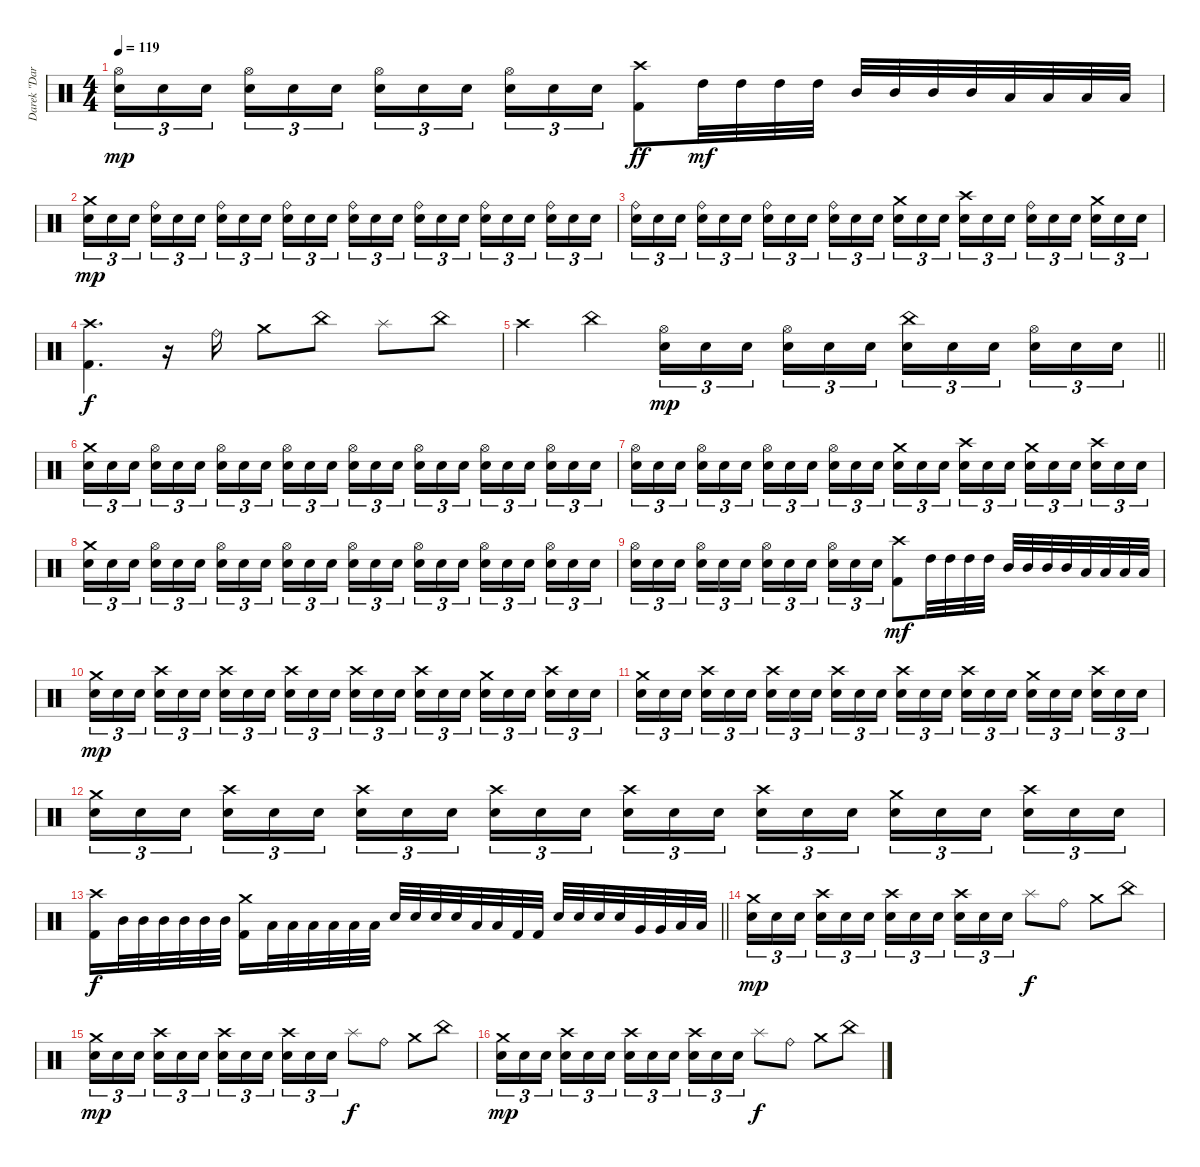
\track ("Darek \"Daray\" Brzozowski " "Darek \"Dar") {instrument percussion}
\staff {score}
\articulation defaults
\ts (4 4)
\tempo 119
\clef neutral
\ks c
("Hi-Hat (open)" "Electric Snare (hit)").16{tu (3 2) dy mp} "Electric Snare (hit)".16{tu (3 2)} "Electric Snare (hit)".16{tu (3 2) beam splitsecondary} ("Hi-Hat (open)" "Electric Snare (hit)").16{tu (3 2)} "Electric Snare (hit)".16{tu (3 2)} "Electric Snare (hit)".16{tu (3 2)} ("Hi-Hat (open)" "Electric Snare (hit)").16{tu (3 2)} "Electric Snare (hit)".16{tu (3 2)} "Electric Snare (hit)".16{tu (3 2) beam splitsecondary} ("Hi-Hat (open)" "Electric Snare (hit)").16{tu (3 2)} "Electric Snare (hit)".16{tu (3 2)} "Electric Snare (hit)".16{tu (3 2)} ("Crash high (hit)" "Kick (hit) 2").8{dy ff} "High Tom (hit)".32{dy mf} "High Tom (hit)".32 "High Tom (hit)".32 "High Tom (hit)".32 "Mid Tom (hit)".32 "Mid Tom (hit)".32 "Mid Tom (hit)".32 "Mid Tom (hit)".32 "Low Tom (hit)".32 "Low Tom (hit)".32 "Low Tom (hit)".32 "Low Tom (hit)".32 |
("Crash medium (hit)" "Electric Snare (hit)").16{tu (3 2) dy mp} "Electric Snare (hit)".16{tu (3 2)} "Electric Snare (hit)".16{tu (3 2) beam splitsecondary} ("Ride (bell)" "Electric Snare (hit)").16{tu (3 2)} "Electric Snare (hit)".16{tu (3 2)} "Electric Snare (hit)".16{tu (3 2)} ("Ride (bell)" "Electric Snare (hit)").16{tu (3 2)} "Electric Snare (hit)".16{tu (3 2)} "Electric Snare (hit)".16{tu (3 2) beam splitsecondary} ("Ride (bell)" "Electric Snare (hit)").16{tu (3 2)} "Electric Snare (hit)".16{tu (3 2)} "Electric Snare (hit)".16{tu (3 2)} ("Ride (bell)" "Electric Snare (hit)").16{tu (3 2)} "Electric Snare (hit)".16{tu (3 2)} "Electric Snare (hit)".16{tu (3 2) beam splitsecondary} ("Ride (bell)" "Electric Snare (hit)").16{tu (3 2)} "Electric Snare (hit)".16{tu (3 2)} "Electric Snare (hit)".16{tu (3 2)} ("Ride (bell)" "Electric Snare (hit)").16{tu (3 2)} "Electric Snare (hit)".16{tu (3 2)} "Electric Snare (hit)".16{tu (3 2) beam splitsecondary} ("Ride (bell)" "Electric Snare (hit)").16{tu (3 2)} "Electric Snare (hit)".16{tu (3 2)} "Electric Snare (hit)".16{tu (3 2)} |
("Ride (bell)" "Electric Snare (hit)").16{tu (3 2)} "Electric Snare (hit)".16{tu (3 2)} "Electric Snare (hit)".16{tu (3 2) beam splitsecondary} ("Ride (bell)" "Electric Snare (hit)").16{tu (3 2)} "Electric Snare (hit)".16{tu (3 2)} "Electric Snare (hit)".16{tu (3 2)} ("Ride (bell)" "Electric Snare (hit)").16{tu (3 2)} "Electric Snare (hit)".16{tu (3 2)} "Electric Snare (hit)".16{tu (3 2) beam splitsecondary} ("Ride (bell)" "Electric Snare (hit)").16{tu (3 2)} "Electric Snare (hit)".16{tu (3 2)} "Electric Snare (hit)".16{tu (3 2)} ("Crash medium (hit)" "Electric Snare (hit)").16{tu (3 2)} "Electric Snare (hit)".16{tu (3 2)} "Electric Snare (hit)".16{tu (3 2) beam splitsecondary} ("Crash high (hit)" "Electric Snare (hit)").16{tu (3 2)} "Electric Snare (hit)".16{tu (3 2)} "Electric Snare (hit)".16{tu (3 2)} ("Ride (bell)" "Electric Snare (hit)").16{tu (3 2)} "Electric Snare (hit)".16{tu (3 2)} "Electric Snare (hit)".16{tu (3 2) beam splitsecondary} ("Crash medium (hit)" "Electric Snare (hit)").16{tu (3 2)} "Electric Snare (hit)".16{tu (3 2)} "Electric Snare (hit)".16{tu (3 2)} |
("Crash high (hit)" "Kick (hit) 2").4{d dy f} r.16 "Ride (bell)".16 "Crash medium (hit)".8 "China (hit)".8 "Splash (hit)".8 "China (hit)".8 |
\barLineRight lightlight "Crash high (hit)".4 "China (hit)".4
("Hi-Hat (open)" "Electric Snare (hit)").16{tu (3 2) dy mp} "Electric Snare (hit)".16{tu (3 2)} "Electric Snare (hit)".16{tu (3 2) beam splitsecondary} ("Hi-Hat (open)" "Electric Snare (hit)").16{tu (3 2)} "Electric Snare (hit)".16{tu (3 2)} "Electric Snare (hit)".16{tu (3 2)} ("China (hit)" "Electric Snare (hit)").16{tu (3 2)} "Electric Snare (hit)".16{tu (3 2)} "Electric Snare (hit)".16{tu (3 2) beam splitsecondary} ("Hi-Hat (open)" "Electric Snare (hit)").16{tu (3 2)} "Electric Snare (hit)".16{tu (3 2)} "Electric Snare (hit)".16{tu (3 2)} |
("Crash medium (hit)" "Electric Snare (hit)").16{tu (3 2)} "Electric Snare (hit)".16{tu (3 2)} "Electric Snare (hit)".16{tu (3 2) beam splitsecondary} ("Hi-Hat (open)" "Electric Snare (hit)").16{tu (3 2)} "Electric Snare (hit)".16{tu (3 2)} "Electric Snare (hit)".16{tu (3 2)} ("Hi-Hat (open)" "Electric Snare (hit)").16{tu (3 2)} "Electric Snare (hit)".16{tu (3 2)} "Electric Snare (hit)".16{tu (3 2) beam splitsecondary} ("Hi-Hat (open)" "Electric Snare (hit)").16{tu (3 2)} "Electric Snare (hit)".16{tu (3 2)} "Electric Snare (hit)".16{tu (3 2)} ("Hi-Hat (open)" "Electric Snare (hit)").16{tu (3 2)} "Electric Snare (hit)".16{tu (3 2)} "Electric Snare (hit)".16{tu (3 2) beam splitsecondary} ("Hi-Hat (open)" "Electric Snare (hit)").16{tu (3 2)} "Electric Snare (hit)".16{tu (3 2)} "Electric Snare (hit)".16{tu (3 2)} ("Hi-Hat (open)" "Electric Snare (hit)").16{tu (3 2)} "Electric Snare (hit)".16{tu (3 2)} "Electric Snare (hit)".16{tu (3 2) beam splitsecondary} ("Hi-Hat (open)" "Electric Snare (hit)").16{tu (3 2)} "Electric Snare (hit)".16{tu (3 2)} "Electric Snare (hit)".16{tu (3 2)} |
("Hi-Hat (open)" "Electric Snare (hit)").16{tu (3 2)} "Electric Snare (hit)".16{tu (3 2)} "Electric Snare (hit)".16{tu (3 2) beam splitsecondary} ("Hi-Hat (open)" "Electric Snare (hit)").16{tu (3 2)} "Electric Snare (hit)".16{tu (3 2)} "Electric Snare (hit)".16{tu (3 2)} ("Hi-Hat (open)" "Electric Snare (hit)").16{tu (3 2)} "Electric Snare (hit)".16{tu (3 2)} "Electric Snare (hit)".16{tu (3 2) beam splitsecondary} ("Hi-Hat (open)" "Electric Snare (hit)").16{tu (3 2)} "Electric Snare (hit)".16{tu (3 2)} "Electric Snare (hit)".16{tu (3 2)} ("Crash medium (hit)" "Electric Snare (hit)").16{tu (3 2)} "Electric Snare (hit)".16{tu (3 2)} "Electric Snare (hit)".16{tu (3 2) beam splitsecondary} ("Crash high (hit)" "Electric Snare (hit)").16{tu (3 2)} "Electric Snare (hit)".16{tu (3 2)} "Electric Snare (hit)".16{tu (3 2)} ("Crash medium (hit)" "Electric Snare (hit)").16{tu (3 2)} "Electric Snare (hit)".16{tu (3 2)} "Electric Snare (hit)".16{tu (3 2) beam splitsecondary} ("Crash high (hit)" "Electric Snare (hit)").16{tu (3 2)} "Electric Snare (hit)".16{tu (3 2)} "Electric Snare (hit)".16{tu (3 2)} |
("Crash medium (hit)" "Electric Snare (hit)").16{tu (3 2)} "Electric Snare (hit)".16{tu (3 2)} "Electric Snare (hit)".16{tu (3 2) beam splitsecondary} ("Hi-Hat (open)" "Electric Snare (hit)").16{tu (3 2)} "Electric Snare (hit)".16{tu (3 2)} "Electric Snare (hit)".16{tu (3 2)} ("Hi-Hat (open)" "Electric Snare (hit)").16{tu (3 2)} "Electric Snare (hit)".16{tu (3 2)} "Electric Snare (hit)".16{tu (3 2) beam splitsecondary} ("Hi-Hat (open)" "Electric Snare (hit)").16{tu (3 2)} "Electric Snare (hit)".16{tu (3 2)} "Electric Snare (hit)".16{tu (3 2)} ("Hi-Hat (open)" "Electric Snare (hit)").16{tu (3 2)} "Electric Snare (hit)".16{tu (3 2)} "Electric Snare (hit)".16{tu (3 2) beam splitsecondary} ("Hi-Hat (open)" "Electric Snare (hit)").16{tu (3 2)} "Electric Snare (hit)".16{tu (3 2)} "Electric Snare (hit)".16{tu (3 2)} ("Hi-Hat (open)" "Electric Snare (hit)").16{tu (3 2)} "Electric Snare (hit)".16{tu (3 2)} "Electric Snare (hit)".16{tu (3 2) beam splitsecondary} ("Hi-Hat (open)" "Electric Snare (hit)").16{tu (3 2)} "Electric Snare (hit)".16{tu (3 2)} "Electric Snare (hit)".16{tu (3 2)} |
("Hi-Hat (open)" "Electric Snare (hit)").16{tu (3 2)} "Electric Snare (hit)".16{tu (3 2)} "Electric Snare (hit)".16{tu (3 2) beam splitsecondary} ("Hi-Hat (open)" "Electric Snare (hit)").16{tu (3 2)} "Electric Snare (hit)".16{tu (3 2)} "Electric Snare (hit)".16{tu (3 2)} ("Hi-Hat (open)" "Electric Snare (hit)").16{tu (3 2)} "Electric Snare (hit)".16{tu (3 2)} "Electric Snare (hit)".16{tu (3 2) beam splitsecondary} ("Hi-Hat (open)" "Electric Snare (hit)").16{tu (3 2)} "Electric Snare (hit)".16{tu (3 2)} "Electric Snare (hit)".16{tu (3 2)} ("Crash high (hit)" "Kick (hit) 2").8{dy mf} "High Tom (hit)".32 "High Tom (hit)".32 "High Tom (hit)".32 "High Tom (hit)".32 "Mid Tom (hit)".32 "Mid Tom (hit)".32 "Mid Tom (hit)".32 "Mid Tom (hit)".32 "Low Tom (hit)".32 "Low Tom (hit)".32 "Low Tom (hit)".32 "Low Tom (hit)".32 |
("Crash medium (hit)" "Electric Snare (hit)").16{tu (3 2) dy mp} "Electric Snare (hit)".16{tu (3 2)} "Electric Snare (hit)".16{tu (3 2) beam splitsecondary} ("Crash high (hit)" "Electric Snare (hit)").16{tu (3 2)} "Electric Snare (hit)".16{tu (3 2)} "Electric Snare (hit)".16{tu (3 2)} ("Crash high (hit)" "Electric Snare (hit)").16{tu (3 2)} "Electric Snare (hit)".16{tu (3 2)} "Electric Snare (hit)".16{tu (3 2) beam splitsecondary} ("Crash high (hit)" "Electric Snare (hit)").16{tu (3 2)} "Electric Snare (hit)".16{tu (3 2)} "Electric Snare (hit)".16{tu (3 2)} ("Crash high (hit)" "Electric Snare (hit)").16{tu (3 2)} "Electric Snare (hit)".16{tu (3 2)} "Electric Snare (hit)".16{tu (3 2) beam splitsecondary} ("Crash high (hit)" "Electric Snare (hit)").16{tu (3 2)} "Electric Snare (hit)".16{tu (3 2)} "Electric Snare (hit)".16{tu (3 2)} ("Crash medium (hit)" "Electric Snare (hit)").16{tu (3 2)} "Electric Snare (hit)".16{tu (3 2)} "Electric Snare (hit)".16{tu (3 2) beam splitsecondary} ("Crash high (hit)" "Electric Snare (hit)").16{tu (3 2)} "Electric Snare (hit)".16{tu (3 2)} "Electric Snare (hit)".16{tu (3 2)} |
("Crash medium (hit)" "Electric Snare (hit)").16{tu (3 2)} "Electric Snare (hit)".16{tu (3 2)} "Electric Snare (hit)".16{tu (3 2) beam splitsecondary} ("Crash high (hit)" "Electric Snare (hit)").16{tu (3 2)} "Electric Snare (hit)".16{tu (3 2)} "Electric Snare (hit)".16{tu (3 2)} ("Crash high (hit)" "Electric Snare (hit)").16{tu (3 2)} "Electric Snare (hit)".16{tu (3 2)} "Electric Snare (hit)".16{tu (3 2) beam splitsecondary} ("Crash high (hit)" "Electric Snare (hit)").16{tu (3 2)} "Electric Snare (hit)".16{tu (3 2)} "Electric Snare (hit)".16{tu (3 2)} ("Crash high (hit)" "Electric Snare (hit)").16{tu (3 2)} "Electric Snare (hit)".16{tu (3 2)} "Electric Snare (hit)".16{tu (3 2) beam splitsecondary} ("Crash high (hit)" "Electric Snare (hit)").16{tu (3 2)} "Electric Snare (hit)".16{tu (3 2)} "Electric Snare (hit)".16{tu (3 2)} ("Crash medium (hit)" "Electric Snare (hit)").16{tu (3 2)} "Electric Snare (hit)".16{tu (3 2)} "Electric Snare (hit)".16{tu (3 2) beam splitsecondary} ("Crash high (hit)" "Electric Snare (hit)").16{tu (3 2)} "Electric Snare (hit)".16{tu (3 2)} "Electric Snare (hit)".16{tu (3 2)} |
("Crash medium (hit)" "Electric Snare (hit)").16{tu (3 2)} "Electric Snare (hit)".16{tu (3 2)} "Electric Snare (hit)".16{tu (3 2) beam splitsecondary} ("Crash high (hit)" "Electric Snare (hit)").16{tu (3 2)} "Electric Snare (hit)".16{tu (3 2)} "Electric Snare (hit)".16{tu (3 2)} ("Crash high (hit)" "Electric Snare (hit)").16{tu (3 2)} "Electric Snare (hit)".16{tu (3 2)} "Electric Snare (hit)".16{tu (3 2) beam splitsecondary} ("Crash high (hit)" "Electric Snare (hit)").16{tu (3 2)} "Electric Snare (hit)".16{tu (3 2)} "Electric Snare (hit)".16{tu (3 2)} ("Crash high (hit)" "Electric Snare (hit)").16{tu (3 2)} "Electric Snare (hit)".16{tu (3 2)} "Electric Snare (hit)".16{tu (3 2) beam splitsecondary} ("Crash high (hit)" "Electric Snare (hit)").16{tu (3 2)} "Electric Snare (hit)".16{tu (3 2)} "Electric Snare (hit)".16{tu (3 2)} ("Crash medium (hit)" "Electric Snare (hit)").16{tu (3 2)} "Electric Snare (hit)".16{tu (3 2)} "Electric Snare (hit)".16{tu (3 2) beam splitsecondary} ("Crash high (hit)" "Electric Snare (hit)").16{tu (3 2)} "Electric Snare (hit)".16{tu (3 2)} "Electric Snare (hit)".16{tu (3 2)} |
\barLineRight lightlight
("Crash high (hit)" "Kick (hit) 2").16{dy f} "Mid Tom (hit)".32 "Mid Tom (hit)".32 "Mid Tom (hit)".32 "Mid Tom (hit)".32 "Mid Tom (hit)".32 "Mid Tom (hit)".32 ("Crash medium (hit)" "Kick (hit) 2").16 "Low Tom (hit)".32 "Low Tom (hit)".32 "Low Tom (hit)".32 "Low Tom (hit)".32 "Low Tom (hit)".32 "Low Tom (hit)".32 "Electric Snare (hit)".32 "Electric Snare (hit)".32 "Electric Snare (hit)".32 "Electric Snare (hit)".32 "Low Floor Tom (hit)".32 "Low Floor Tom (hit)".32 "Kick (hit) 2".32 "Kick (hit) 2".32 "Electric Snare (hit)".32 "Electric Snare (hit)".32 "Electric Snare (hit)".32 "Electric Snare (hit)".32 "Very Low Tom (hit)".32 "Very Low Tom (hit)".32 "Low Floor Tom (hit)".32 "Low Floor Tom (hit)".32 |
("Crash medium (hit)" "Electric Snare (hit)").16{tu (3 2) dy mp} "Electric Snare (hit)".16{tu (3 2)} "Electric Snare (hit)".16{tu (3 2) beam splitsecondary} ("Crash high (hit)" "Electric Snare (hit)").16{tu (3 2)} "Electric Snare (hit)".16{tu (3 2)} "Electric Snare (hit)".16{tu (3 2)} ("Crash high (hit)" "Electric Snare (hit)").16{tu (3 2)} "Electric Snare (hit)".16{tu (3 2)} "Electric Snare (hit)".16{tu (3 2) beam splitsecondary} ("Crash high (hit)" "Electric Snare (hit)").16{tu (3 2)} "Electric Snare (hit)".16{tu (3 2)} "Electric Snare (hit)".16{tu (3 2)} "Splash (hit)".8{dy f} "Ride (bell)".8 "Crash medium (hit)".8 "China (hit)".8 |
("Crash medium (hit)" "Electric Snare (hit)").16{tu (3 2) dy mp} "Electric Snare (hit)".16{tu (3 2)} "Electric Snare (hit)".16{tu (3 2) beam splitsecondary} ("Crash high (hit)" "Electric Snare (hit)").16{tu (3 2)} "Electric Snare (hit)".16{tu (3 2)} "Electric Snare (hit)".16{tu (3 2)} ("Crash high (hit)" "Electric Snare (hit)").16{tu (3 2)} "Electric Snare (hit)".16{tu (3 2)} "Electric Snare (hit)".16{tu (3 2) beam splitsecondary} ("Crash high (hit)" "Electric Snare (hit)").16{tu (3 2)} "Electric Snare (hit)".16{tu (3 2)} "Electric Snare (hit)".16{tu (3 2)} "Splash (hit)".8{dy f} "Ride (bell)".8 "Crash medium (hit)".8 "China (hit)".8 |
("Crash medium (hit)" "Electric Snare (hit)").16{tu (3 2) dy mp} "Electric Snare (hit)".16{tu (3 2)} "Electric Snare (hit)".16{tu (3 2) beam splitsecondary} ("Crash high (hit)" "Electric Snare (hit)").16{tu (3 2)} "Electric Snare (hit)".16{tu (3 2)} "Electric Snare (hit)".16{tu (3 2)} ("Crash high (hit)" "Electric Snare (hit)").16{tu (3 2)} "Electric Snare (hit)".16{tu (3 2)} "Electric Snare (hit)".16{tu (3 2) beam splitsecondary} ("Crash high (hit)" "Electric Snare (hit)").16{tu (3 2)} "Electric Snare (hit)".16{tu (3 2)} "Electric Snare (hit)".16{tu (3 2)} "Splash (hit)".8{dy f} "Ride (bell)".8 "Crash medium (hit)".8 "China (hit)".8
